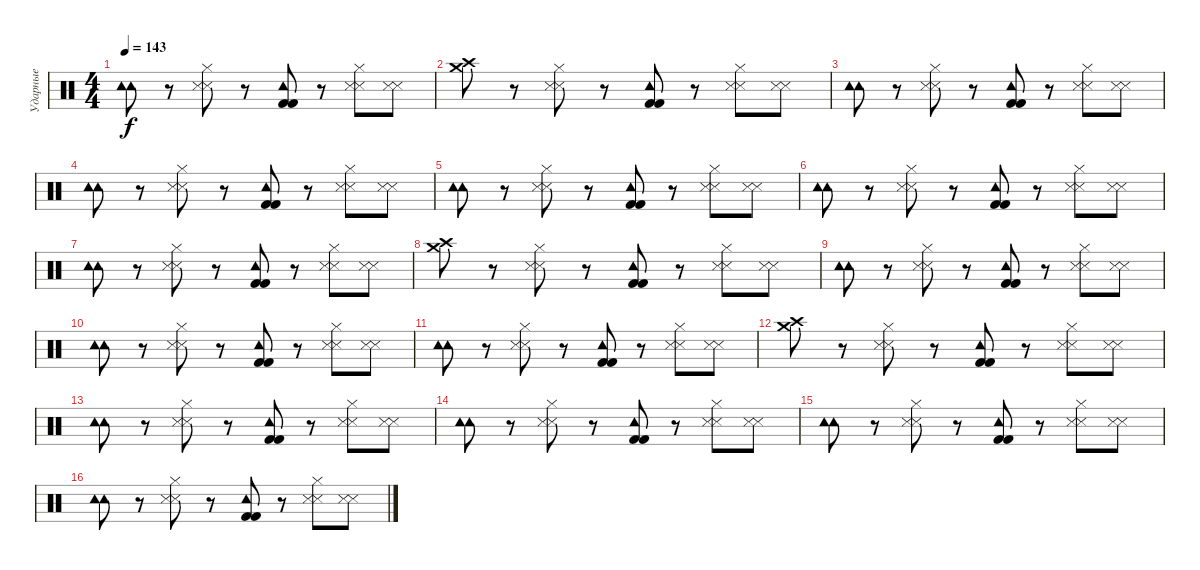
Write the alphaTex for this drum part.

\track ("Ударные" "Ударные") {instrument percussion}
\staff {score}
\articulation defaults
\ts (4 4)
\tempo 143
\clef neutral
\ks c
("Tambourine (hit)" "Tambourine (hit)").8{dy f} r.8 ("Hi-Hat (closed)" "Metronome (hit)" "Metronome (hit)").8 r.8 ("Tambourine (hit)" "Kick (hit) 2" "Kick (hit) 2").8 r.8 ("Hi-Hat (closed)" "Metronome (hit)" "Metronome (hit)").8 ("Metronome (hit)" "Metronome (hit)").8 |
("Crash medium (hit)" "Crash high (hit)").8 r.8 ("Hi-Hat (closed)" "Metronome (hit)" "Metronome (hit)").8 r.8 ("Tambourine (hit)" "Kick (hit) 2" "Kick (hit) 2").8 r.8 ("Hi-Hat (closed)" "Metronome (hit)" "Metronome (hit)").8 ("Metronome (hit)" "Metronome (hit)").8 |
("Tambourine (hit)" "Tambourine (hit)").8 r.8 ("Hi-Hat (closed)" "Metronome (hit)" "Metronome (hit)").8 r.8 ("Tambourine (hit)" "Kick (hit) 2" "Kick (hit) 2").8 r.8 ("Hi-Hat (closed)" "Metronome (hit)" "Metronome (hit)").8 ("Metronome (hit)" "Metronome (hit)").8 |
("Tambourine (hit)" "Tambourine (hit)").8 r.8 ("Hi-Hat (closed)" "Metronome (hit)" "Metronome (hit)").8 r.8 ("Tambourine (hit)" "Kick (hit) 2" "Kick (hit) 2").8 r.8 ("Hi-Hat (closed)" "Metronome (hit)" "Metronome (hit)").8 ("Metronome (hit)" "Metronome (hit)").8 |
("Tambourine (hit)" "Tambourine (hit)").8 r.8 ("Hi-Hat (closed)" "Metronome (hit)" "Metronome (hit)").8 r.8 ("Tambourine (hit)" "Kick (hit) 2" "Kick (hit) 2").8 r.8 ("Hi-Hat (closed)" "Metronome (hit)" "Metronome (hit)").8 ("Metronome (hit)" "Metronome (hit)").8 |
("Tambourine (hit)" "Tambourine (hit)").8 r.8 ("Hi-Hat (closed)" "Metronome (hit)" "Metronome (hit)").8 r.8 ("Tambourine (hit)" "Kick (hit) 2" "Kick (hit) 2").8 r.8 ("Hi-Hat (closed)" "Metronome (hit)" "Metronome (hit)").8 ("Metronome (hit)" "Metronome (hit)").8 |
("Tambourine (hit)" "Tambourine (hit)").8 r.8 ("Hi-Hat (closed)" "Metronome (hit)" "Metronome (hit)").8 r.8 ("Tambourine (hit)" "Kick (hit) 2" "Kick (hit) 2").8 r.8 ("Hi-Hat (closed)" "Metronome (hit)" "Metronome (hit)").8 ("Metronome (hit)" "Metronome (hit)").8 |
("Crash medium (hit)" "Crash high (hit)").8 r.8 ("Hi-Hat (closed)" "Metronome (hit)" "Metronome (hit)").8 r.8 ("Tambourine (hit)" "Kick (hit) 2" "Kick (hit) 2").8 r.8 ("Hi-Hat (closed)" "Metronome (hit)" "Metronome (hit)").8 ("Metronome (hit)" "Metronome (hit)").8 |
("Tambourine (hit)" "Tambourine (hit)").8 r.8 ("Hi-Hat (closed)" "Metronome (hit)" "Metronome (hit)").8 r.8 ("Tambourine (hit)" "Kick (hit) 2" "Kick (hit) 2").8 r.8 ("Hi-Hat (closed)" "Metronome (hit)" "Metronome (hit)").8 ("Metronome (hit)" "Metronome (hit)").8 |
("Tambourine (hit)" "Tambourine (hit)").8 r.8 ("Hi-Hat (closed)" "Metronome (hit)" "Metronome (hit)").8 r.8 ("Tambourine (hit)" "Kick (hit) 2" "Kick (hit) 2").8 r.8 ("Hi-Hat (closed)" "Metronome (hit)" "Metronome (hit)").8 ("Metronome (hit)" "Metronome (hit)").8 |
("Tambourine (hit)" "Tambourine (hit)").8 r.8 ("Hi-Hat (closed)" "Metronome (hit)" "Metronome (hit)").8 r.8 ("Tambourine (hit)" "Kick (hit) 2" "Kick (hit) 2").8 r.8 ("Hi-Hat (closed)" "Metronome (hit)" "Metronome (hit)").8 ("Metronome (hit)" "Metronome (hit)").8 |
("Crash medium (hit)" "Crash high (hit)").8 r.8 ("Hi-Hat (closed)" "Metronome (hit)" "Metronome (hit)").8 r.8 ("Tambourine (hit)" "Kick (hit) 2" "Kick (hit) 2").8 r.8 ("Hi-Hat (closed)" "Metronome (hit)" "Metronome (hit)").8 ("Metronome (hit)" "Metronome (hit)").8 |
("Tambourine (hit)" "Tambourine (hit)").8 r.8 ("Hi-Hat (closed)" "Metronome (hit)" "Metronome (hit)").8 r.8 ("Tambourine (hit)" "Kick (hit) 2" "Kick (hit) 2").8 r.8 ("Hi-Hat (closed)" "Metronome (hit)" "Metronome (hit)").8 ("Metronome (hit)" "Metronome (hit)").8 |
("Tambourine (hit)" "Tambourine (hit)").8 r.8 ("Hi-Hat (closed)" "Metronome (hit)" "Metronome (hit)").8 r.8 ("Tambourine (hit)" "Kick (hit) 2" "Kick (hit) 2").8 r.8 ("Hi-Hat (closed)" "Metronome (hit)" "Metronome (hit)").8 ("Metronome (hit)" "Metronome (hit)").8 |
("Tambourine (hit)" "Tambourine (hit)").8 r.8 ("Hi-Hat (closed)" "Metronome (hit)" "Metronome (hit)").8 r.8 ("Tambourine (hit)" "Kick (hit) 2" "Kick (hit) 2").8 r.8 ("Hi-Hat (closed)" "Metronome (hit)" "Metronome (hit)").8 ("Metronome (hit)" "Metronome (hit)").8 |
("Tambourine (hit)" "Tambourine (hit)").8 r.8 ("Hi-Hat (closed)" "Metronome (hit)" "Metronome (hit)").8 r.8 ("Tambourine (hit)" "Kick (hit) 2" "Kick (hit) 2").8 r.8 ("Hi-Hat (closed)" "Metronome (hit)" "Metronome (hit)").8 ("Metronome (hit)" "Metronome (hit)").8
